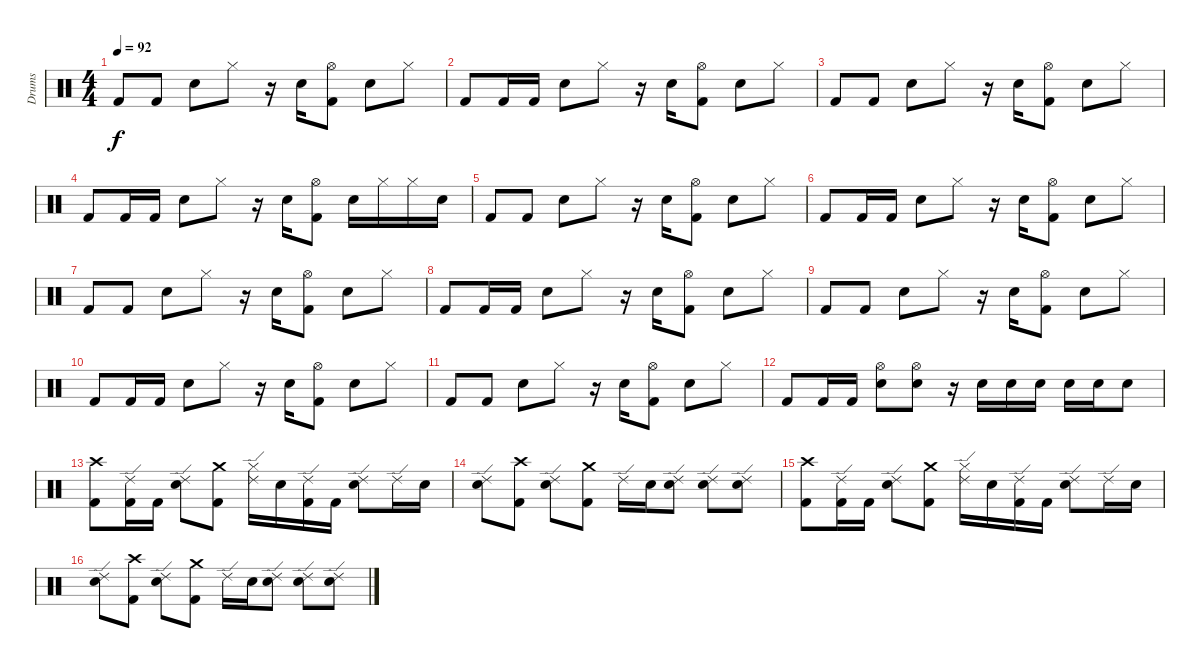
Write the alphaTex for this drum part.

\track ("Drums" "Drums") {instrument percussion}
\staff {score}
\articulation defaults
\ts (4 4)
\tempo 92
\clef neutral
\ks c "Kick (hit) 2".8{dy f} "Kick (hit) 2".8 "Snare (hit) 2".8 "Hi-Hat (closed)".8
r.16 "Snare (hit) 2".16 ("Hi-Hat (open)" "Kick (hit) 2").8 "Snare (hit) 2".8 "Hi-Hat (closed)".8 |
"Kick (hit) 2".8 "Kick (hit) 2".16 "Kick (hit) 2".16 "Snare (hit) 2".8 "Hi-Hat (closed)".8 r.16 "Snare (hit) 2".16 ("Hi-Hat (open)" "Kick (hit) 2").8 "Snare (hit) 2".8 "Hi-Hat (closed)".8 |
"Kick (hit) 2".8 "Kick (hit) 2".8 "Snare (hit) 2".8 "Hi-Hat (closed)".8 r.16 "Snare (hit) 2".16 ("Hi-Hat (open)" "Kick (hit) 2").8 "Snare (hit) 2".8 "Hi-Hat (closed)".8 |
"Kick (hit) 2".8 "Kick (hit) 2".16 "Kick (hit) 2".16 "Snare (hit) 2".8 "Hi-Hat (closed)".8 r.16 "Snare (hit) 2".16 ("Hi-Hat (open)" "Kick (hit) 2").8 "Snare (hit) 2".16 "Hi-Hat (closed)".16 "Hi-Hat (closed)".16 "Snare (hit) 2".16 |
"Kick (hit) 2".8 "Kick (hit) 2".8 "Snare (hit) 2".8 "Hi-Hat (closed)".8 r.16 "Snare (hit) 2".16 ("Hi-Hat (open)" "Kick (hit) 2").8 "Snare (hit) 2".8 "Hi-Hat (closed)".8 |
"Kick (hit) 2".8 "Kick (hit) 2".16 "Kick (hit) 2".16 "Snare (hit) 2".8 "Hi-Hat (closed)".8 r.16 "Snare (hit) 2".16 ("Hi-Hat (open)" "Kick (hit) 2").8 "Snare (hit) 2".8 "Hi-Hat (closed)".8 |
"Kick (hit) 2".8 "Kick (hit) 2".8 "Snare (hit) 2".8 "Hi-Hat (closed)".8 r.16 "Snare (hit) 2".16 ("Hi-Hat (open)" "Kick (hit) 2").8 "Snare (hit) 2".8 "Hi-Hat (closed)".8 |
"Kick (hit) 2".8 "Kick (hit) 2".16 "Kick (hit) 2".16 "Snare (hit) 2".8 "Hi-Hat (closed)".8 r.16 "Snare (hit) 2".16 ("Hi-Hat (open)" "Kick (hit) 2").8 "Snare (hit) 2".8 "Hi-Hat (closed)".8 |
"Kick (hit) 2".8 "Kick (hit) 2".8 "Snare (hit) 2".8 "Hi-Hat (closed)".8 r.16 "Snare (hit) 2".16 ("Hi-Hat (open)" "Kick (hit) 2").8 "Snare (hit) 2".8 "Hi-Hat (closed)".8 |
"Kick (hit) 2".8 "Kick (hit) 2".16 "Kick (hit) 2".16 "Snare (hit) 2".8 "Hi-Hat (closed)".8 r.16 "Snare (hit) 2".16 ("Hi-Hat (open)" "Kick (hit) 2").8 "Snare (hit) 2".8 "Hi-Hat (closed)".8 |
"Kick (hit) 2".8 "Kick (hit) 2".8 "Snare (hit) 2".8 "Hi-Hat (closed)".8 r.16 "Snare (hit) 2".16 ("Hi-Hat (open)" "Kick (hit) 2").8 "Snare (hit) 2".8 "Hi-Hat (closed)".8 |
"Kick (hit) 2".8 "Kick (hit) 2".16 "Kick (hit) 2".16 ("Hi-Hat (open)" "Snare (hit) 2").8 ("Hi-Hat (open)" "Snare (hit) 2").8 r.16 "Snare (hit) 2".16 "Snare (hit) 2".16 "Snare (hit) 2".16 "Snare (hit) 2".16 "Snare (hit) 2".16 "Snare (hit) 2".8 |
("Crash high (hit)" "Kick (hit) 2").8 ("Ride (edge) 2" "Kick (hit) 2").16 "Kick (hit) 2".16 ("Ride (edge) 2" "Snare (hit) 2").8 ("Crash medium (hit)" "Kick (hit) 2").8 ("Ride (edge) 2" "Hi-Hat (closed)").16 "Snare (hit) 2".16 ("Ride (edge) 2" "Kick (hit) 2").16 "Kick (hit) 2".16 ("Ride (edge) 2" "Snare (hit) 2").8 "Ride (edge) 2".16 "Snare (hit) 2".16 |
("Ride (edge) 2" "Snare (hit) 2").8 ("Crash high (hit)" "Kick (hit) 2").8 ("Ride (edge) 2" "Snare (hit) 2").8 ("Crash medium (hit)" "Kick (hit) 2").8 "Ride (edge) 2".16 "Snare (hit) 2".16 ("Ride (edge) 2" "Snare (hit) 2").8 ("Ride (edge) 2" "Snare (hit) 2").8 ("Ride (edge) 2" "Snare (hit) 2").8 |
("Crash high (hit)" "Kick (hit) 2").8 ("Ride (edge) 2" "Kick (hit) 2").16 "Kick (hit) 2".16 ("Ride (edge) 2" "Snare (hit) 2").8 ("Crash medium (hit)" "Kick (hit) 2").8 ("Ride (edge) 2" "Hi-Hat (closed)").16 "Snare (hit) 2".16 ("Ride (edge) 2" "Kick (hit) 2").16 "Kick (hit) 2".16 ("Ride (edge) 2" "Snare (hit) 2").8 "Ride (edge) 2".16 "Snare (hit) 2".16 |
("Ride (edge) 2" "Snare (hit) 2").8 ("Crash high (hit)" "Kick (hit) 2").8 ("Ride (edge) 2" "Snare (hit) 2").8 ("Crash medium (hit)" "Kick (hit) 2").8 "Ride (edge) 2".16 "Snare (hit) 2".16 ("Ride (edge) 2" "Snare (hit) 2").8 ("Ride (edge) 2" "Snare (hit) 2").8 ("Ride (edge) 2" "Snare (hit) 2").8
